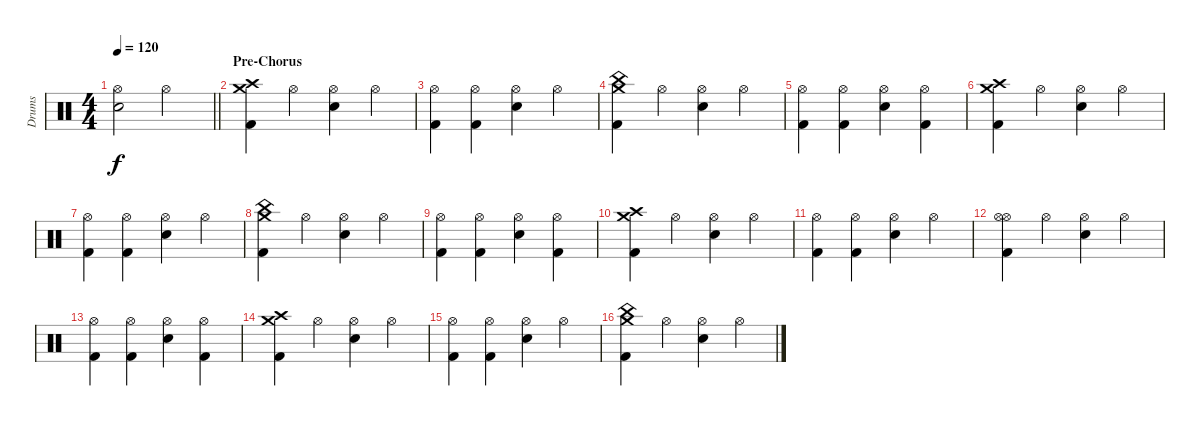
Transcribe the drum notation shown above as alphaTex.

\track ("Drums" "Drums") {instrument percussion}
\staff {score}
\articulation defaults
\ts (4 4)
\tempo 120
\clef neutral
\barLineRight lightlight
\ks c
("Hi-Hat (open)" "Snare (hit) 2").2{dy f} "Hi-Hat (open)".2 |
\section ("" "Pre-Chorus")
("Crash high (hit)" "Crash medium (hit)" "Kick (hit) 2").4 "Hi-Hat (open)".4 ("Hi-Hat (open)" "Snare (hit) 2").4 "Hi-Hat (open)".4 |
("Hi-Hat (open)" "Kick (hit) 2").4 ("Hi-Hat (open)" "Kick (hit) 2").4 ("Hi-Hat (open)" "Snare (hit) 2").4 "Hi-Hat (open)".4 |
("Crash medium (hit)" "China (hit)" "Kick (hit) 2").4 "Hi-Hat (open)".4 ("Hi-Hat (open)" "Snare (hit) 2").4 "Hi-Hat (open)".4 |
("Hi-Hat (open)" "Kick (hit) 2").4 ("Hi-Hat (open)" "Kick (hit) 2").4 ("Hi-Hat (open)" "Snare (hit) 2").4 ("Hi-Hat (open)" "Kick (hit) 2").4 |
("Crash high (hit)" "Crash medium (hit)" "Kick (hit) 2").4 "Hi-Hat (open)".4 ("Hi-Hat (open)" "Snare (hit) 2").4 "Hi-Hat (open)".4 |
("Hi-Hat (open)" "Kick (hit) 2").4 ("Hi-Hat (open)" "Kick (hit) 2").4 ("Hi-Hat (open)" "Snare (hit) 2").4 "Hi-Hat (open)".4 |
("Crash medium (hit)" "China (hit)" "Kick (hit) 2").4 "Hi-Hat (open)".4 ("Hi-Hat (open)" "Snare (hit) 2").4 "Hi-Hat (open)".4 |
("Hi-Hat (open)" "Kick (hit) 2").4 ("Hi-Hat (open)" "Kick (hit) 2").4 ("Hi-Hat (open)" "Snare (hit) 2").4 ("Hi-Hat (open)" "Kick (hit) 2").4 |
("Crash high (hit)" "Crash medium (hit)" "Kick (hit) 2").4 "Hi-Hat (open)".4 ("Hi-Hat (open)" "Snare (hit) 2").4 "Hi-Hat (open)".4 |
("Hi-Hat (open)" "Kick (hit) 2").4 ("Hi-Hat (open)" "Kick (hit) 2").4 ("Hi-Hat (open)" "Snare (hit) 2").4 "Hi-Hat (open)".4 |
("Hi-Hat (open)" "Hi-Hat (open)" "Kick (hit) 2").4 "Hi-Hat (open)".4 ("Hi-Hat (open)" "Snare (hit) 2").4 "Hi-Hat (open)".4 |
("Hi-Hat (open)" "Kick (hit) 2").4 ("Hi-Hat (open)" "Kick (hit) 2").4 ("Hi-Hat (open)" "Snare (hit) 2").4 ("Hi-Hat (open)" "Kick (hit) 2").4 |
("Crash high (hit)" "Crash medium (hit)" "Kick (hit) 2").4 "Hi-Hat (open)".4 ("Hi-Hat (open)" "Snare (hit) 2").4 "Hi-Hat (open)".4 |
("Hi-Hat (open)" "Kick (hit) 2").4 ("Hi-Hat (open)" "Kick (hit) 2").4 ("Hi-Hat (open)" "Snare (hit) 2").4 "Hi-Hat (open)".4 |
("Crash medium (hit)" "China (hit)" "Kick (hit) 2").4 "Hi-Hat (open)".4 ("Hi-Hat (open)" "Snare (hit) 2").4 "Hi-Hat (open)".4
